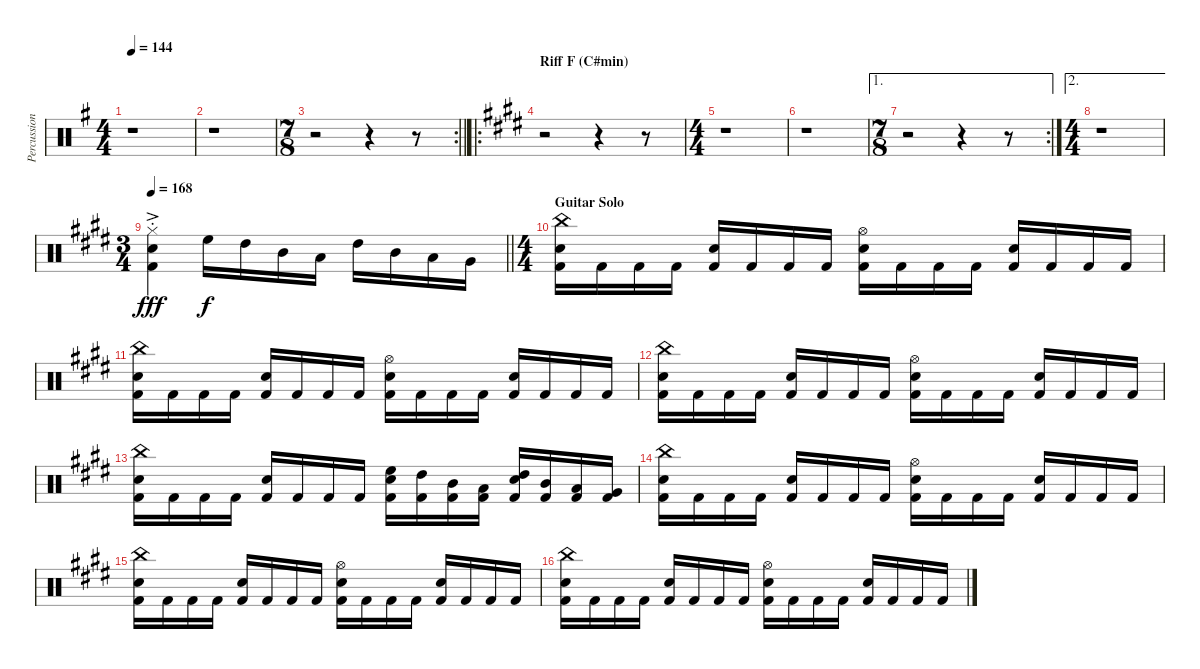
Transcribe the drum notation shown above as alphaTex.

\track ("Percussion" "Percussion") {instrument percussion}
\staff {score}
\articulation defaults
\ts (4 4)
\tempo 144
\clef neutral
\ks eminor
r.1{dy f} |
r.1 |
\rc 2
\ts (7 8)
\barLineRight lightlight
r.2 r.4 r.8 |
\ro
\section ("" "Riff F (C#min)")
\ks c#minor
r.2 r.4 r.8 |
\ts (4 4)
r.1 |
r.1 |
\ae 1
\rc 2
\ts (7 8)
r.2 r.4 r.8 |
\ae 2
\ts (4 4)
r.1 |
\ts (3 4)
\tempo 168
\barLineRight lightlight
("Hi-Hat (closed)"{ac st} "Snare (hit) 2"{ac st} "Kick (hit) 2"{ac st}).4{dy fff} "High Floor Tom (hit)".16{dy f} "High Tom (hit)".16 "Mid Tom (hit)".16 "Low Tom (hit)".16 "High Tom (hit)".16 "Mid Tom (hit)".16 "Low Tom (hit)".16 "Very Low Tom (hit)".16 |
\ts (4 4)
\section ("" "Guitar Solo")
("China (hit)" "Snare (hit) 2" "Kick (hit) 2").16 "Kick (hit) 2".16 "Kick (hit) 2".16 "Kick (hit) 2".16 ("Snare (hit) 2" "Kick (hit) 2").16 "Kick (hit) 2".16 "Kick (hit) 2".16 "Kick (hit) 2".16 ("Hi-Hat (open)" "Snare (hit) 2" "Kick (hit) 2").16 "Kick (hit) 2".16 "Kick (hit) 2".16 "Kick (hit) 2".16 ("Snare (hit) 2" "Kick (hit) 2").16 "Kick (hit) 2".16 "Kick (hit) 2".16 "Kick (hit) 2".16 |
("China (hit)" "Snare (hit) 2" "Kick (hit) 2").16 "Kick (hit) 2".16 "Kick (hit) 2".16 "Kick (hit) 2".16 ("Snare (hit) 2" "Kick (hit) 2").16 "Kick (hit) 2".16 "Kick (hit) 2".16 "Kick (hit) 2".16 ("Hi-Hat (open)" "Snare (hit) 2" "Kick (hit) 2").16 "Kick (hit) 2".16 "Kick (hit) 2".16 "Kick (hit) 2".16 ("Snare (hit) 2" "Kick (hit) 2").16 "Kick (hit) 2".16 "Kick (hit) 2".16 "Kick (hit) 2".16 |
("China (hit)" "Snare (hit) 2" "Kick (hit) 2").16 "Kick (hit) 2".16 "Kick (hit) 2".16 "Kick (hit) 2".16 ("Snare (hit) 2" "Kick (hit) 2").16 "Kick (hit) 2".16 "Kick (hit) 2".16 "Kick (hit) 2".16 ("Hi-Hat (open)" "Snare (hit) 2" "Kick (hit) 2").16 "Kick (hit) 2".16 "Kick (hit) 2".16 "Kick (hit) 2".16 ("Snare (hit) 2" "Kick (hit) 2").16 "Kick (hit) 2".16 "Kick (hit) 2".16 "Kick (hit) 2".16 |
("China (hit)" "Snare (hit) 2" "Kick (hit) 2").16 "Kick (hit) 2".16 "Kick (hit) 2".16 "Kick (hit) 2".16 ("Snare (hit) 2" "Kick (hit) 2").16 "Kick (hit) 2".16 "Kick (hit) 2".16 "Kick (hit) 2".16 ("High Floor Tom (hit)" "Snare (hit) 2" "Kick (hit) 2").16 ("High Tom (hit)" "Kick (hit) 2").16 ("Mid Tom (hit)" "Kick (hit) 2").16 ("Low Tom (hit)" "Kick (hit) 2").16 ("High Tom (hit)" "Snare (hit) 2" "Kick (hit) 2").16 ("Mid Tom (hit)" "Kick (hit) 2").16 ("Low Tom (hit)" "Kick (hit) 2").16 ("Very Low Tom (hit)" "Kick (hit) 2").16 |
("China (hit)" "Snare (hit) 2" "Kick (hit) 2").16 "Kick (hit) 2".16 "Kick (hit) 2".16 "Kick (hit) 2".16 ("Snare (hit) 2" "Kick (hit) 2").16 "Kick (hit) 2".16 "Kick (hit) 2".16 "Kick (hit) 2".16 ("Hi-Hat (open)" "Snare (hit) 2" "Kick (hit) 2").16 "Kick (hit) 2".16 "Kick (hit) 2".16 "Kick (hit) 2".16 ("Snare (hit) 2" "Kick (hit) 2").16 "Kick (hit) 2".16 "Kick (hit) 2".16 "Kick (hit) 2".16 |
("China (hit)" "Snare (hit) 2" "Kick (hit) 2").16 "Kick (hit) 2".16 "Kick (hit) 2".16 "Kick (hit) 2".16 ("Snare (hit) 2" "Kick (hit) 2").16 "Kick (hit) 2".16 "Kick (hit) 2".16 "Kick (hit) 2".16 ("Hi-Hat (open)" "Snare (hit) 2" "Kick (hit) 2").16 "Kick (hit) 2".16 "Kick (hit) 2".16 "Kick (hit) 2".16 ("Snare (hit) 2" "Kick (hit) 2").16 "Kick (hit) 2".16 "Kick (hit) 2".16 "Kick (hit) 2".16 |
("China (hit)" "Snare (hit) 2" "Kick (hit) 2").16 "Kick (hit) 2".16 "Kick (hit) 2".16 "Kick (hit) 2".16 ("Snare (hit) 2" "Kick (hit) 2").16 "Kick (hit) 2".16 "Kick (hit) 2".16 "Kick (hit) 2".16 ("Hi-Hat (open)" "Snare (hit) 2" "Kick (hit) 2").16 "Kick (hit) 2".16 "Kick (hit) 2".16 "Kick (hit) 2".16 ("Snare (hit) 2" "Kick (hit) 2").16 "Kick (hit) 2".16 "Kick (hit) 2".16 "Kick (hit) 2".16
